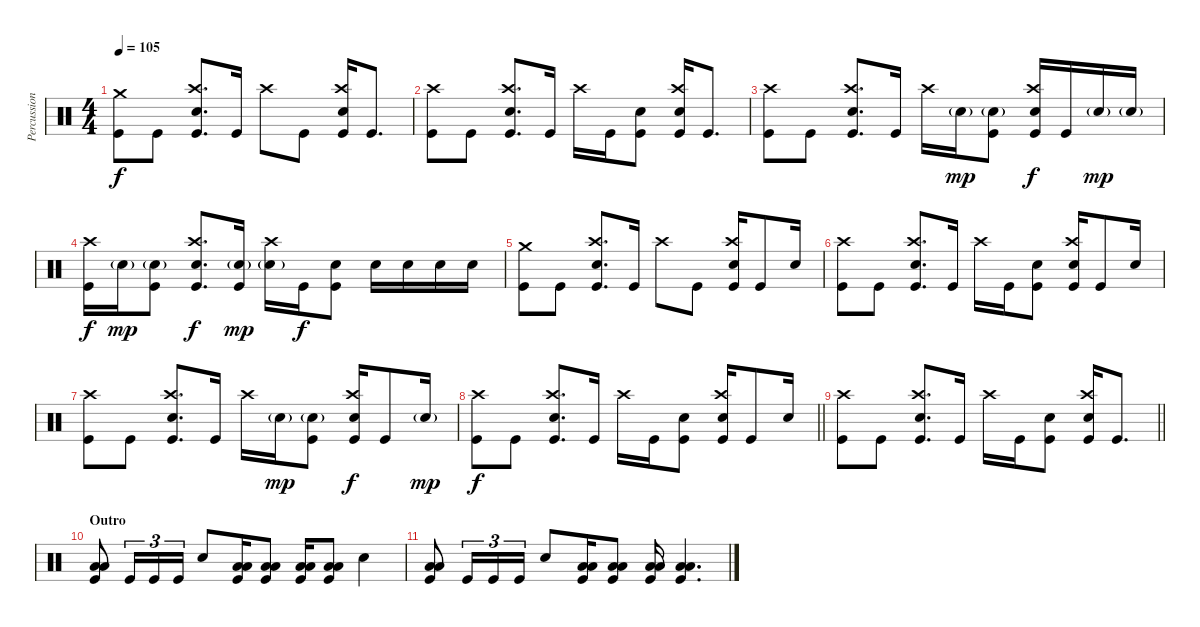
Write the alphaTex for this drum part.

\track ("Percussion" "Percussion") {instrument percussion}
\staff {score}
\articulation defaults
\ts (4 4)
\tempo 105
\clef neutral
\ks c
("Crash medium (hit)" "Kick (hit)").8{dy f} "Kick (hit)".8 ("Crash high (hit)" "Electric Snare (hit)" "Kick (hit)").8{d} "Kick (hit)".16 "Crash high (hit)".8 "Kick (hit)".8 ("Crash high (hit)" "Electric Snare (hit)" "Kick (hit)").16 "Kick (hit)".8{d} |
("Crash high (hit)" "Kick (hit)").8 "Kick (hit)".8 ("Crash high (hit)" "Electric Snare (hit)" "Kick (hit)").8{d} "Kick (hit)".16 "Crash high (hit)".16 "Kick (hit)".16 ("Electric Snare (hit)" "Kick (hit)").8 ("Crash high (hit)" "Electric Snare (hit)" "Kick (hit)").16 "Kick (hit)".8{d} |
("Crash high (hit)" "Kick (hit)").8 "Kick (hit)".8 ("Crash high (hit)" "Electric Snare (hit)" "Kick (hit)").8{d} "Kick (hit)".16 "Crash high (hit)".16 "Electric Snare (hit)"{g}.16{dy mp} ("Electric Snare (hit)"{g} "Kick (hit)").8 ("Crash high (hit)" "Electric Snare (hit)" "Kick (hit)").16{dy f} "Kick (hit)".16 "Electric Snare (hit)"{g}.16{dy mp} "Electric Snare (hit)"{g}.16 |
("Crash high (hit)" "Kick (hit)").16{dy f} "Electric Snare (hit)"{g}.16{dy mp} ("Electric Snare (hit)"{g} "Kick (hit)").8 ("Crash high (hit)" "Electric Snare (hit)" "Kick (hit)").8{d dy f} ("Electric Snare (hit)"{g} "Kick (hit)").16{dy mp} ("Crash high (hit)" "Electric Snare (hit)"{g}).16 "Kick (hit)".16{dy f} ("Electric Snare (hit)" "Kick (hit)").8 "Electric Snare (hit)".16 "Electric Snare (hit)".16 "Electric Snare (hit)".16 "Electric Snare (hit)".16 |
("Crash medium (hit)" "Kick (hit)").8 "Kick (hit)".8 ("Crash high (hit)" "Electric Snare (hit)" "Kick (hit)").8{d} "Kick (hit)".16 "Crash high (hit)".8 "Kick (hit)".8 ("Crash high (hit)" "Electric Snare (hit)" "Kick (hit)").16 "Kick (hit)".8 "Electric Snare (hit)".16 |
("Crash high (hit)" "Kick (hit)").8 "Kick (hit)".8 ("Crash high (hit)" "Electric Snare (hit)" "Kick (hit)").8{d} "Kick (hit)".16 "Crash high (hit)".16 "Kick (hit)".16 ("Electric Snare (hit)" "Kick (hit)").8 ("Crash high (hit)" "Electric Snare (hit)" "Kick (hit)").16 "Kick (hit)".8 "Electric Snare (hit)".16 |
("Crash high (hit)" "Kick (hit)").8 "Kick (hit)".8 ("Crash high (hit)" "Electric Snare (hit)" "Kick (hit)").8{d} "Kick (hit)".16 "Crash high (hit)".16 "Electric Snare (hit)"{g}.16{dy mp} ("Electric Snare (hit)"{g} "Kick (hit)").8 ("Crash high (hit)" "Electric Snare (hit)" "Kick (hit)").16{dy f} "Kick (hit)".8 "Electric Snare (hit)"{g}.16{dy mp} |
\barLineRight lightlight
("Crash high (hit)" "Kick (hit)").8{dy f} "Kick (hit)".8 ("Crash high (hit)" "Electric Snare (hit)" "Kick (hit)").8{d} "Kick (hit)".16 "Crash high (hit)".16 "Kick (hit)".16 ("Electric Snare (hit)" "Kick (hit)").8 ("Crash high (hit)" "Electric Snare (hit)" "Kick (hit)").16 "Kick (hit)".8 "Electric Snare (hit)".16 |
\barLineRight lightlight
("Crash high (hit)" "Kick (hit)").8 "Kick (hit)".8 ("Crash high (hit)" "Electric Snare (hit)" "Kick (hit)").8{d} "Kick (hit)".16 "Crash high (hit)".16 "Kick (hit)".16 ("Electric Snare (hit)" "Kick (hit)").8 ("Crash high (hit)" "Electric Snare (hit)" "Kick (hit)").16 "Kick (hit)".8{d} |
\section ("" "Outro")
("Low Floor Tom (hit)" "Low Floor Tom (hit)" "Kick (hit)").8 "Kick (hit)".16{tu (3 2)} "Kick (hit)".16{tu (3 2)} "Kick (hit)".16{tu (3 2)} "Electric Snare (hit)".8 ("Low Floor Tom (hit)" "Low Floor Tom (hit)" "Kick (hit)").16 ("Low Floor Tom (hit)" "Low Floor Tom (hit)" "Kick (hit)").8 ("Low Floor Tom (hit)" "Low Floor Tom (hit)" "Kick (hit)").16 ("Low Floor Tom (hit)" "Low Floor Tom (hit)" "Kick (hit)").8 "Electric Snare (hit)".4 |
("Low Floor Tom (hit)" "Low Floor Tom (hit)" "Kick (hit)").8 "Kick (hit)".16{tu (3 2)} "Kick (hit)".16{tu (3 2)} "Kick (hit)".16{tu (3 2)} "Electric Snare (hit)".8 ("Low Floor Tom (hit)" "Low Floor Tom (hit)" "Kick (hit)").16 ("Low Floor Tom (hit)" "Low Floor Tom (hit)" "Kick (hit)").8 ("Low Floor Tom (hit)" "Low Floor Tom (hit)" "Kick (hit)").16 ("Low Floor Tom (hit)" "Low Floor Tom (hit)" "Kick (hit)").4{d}
